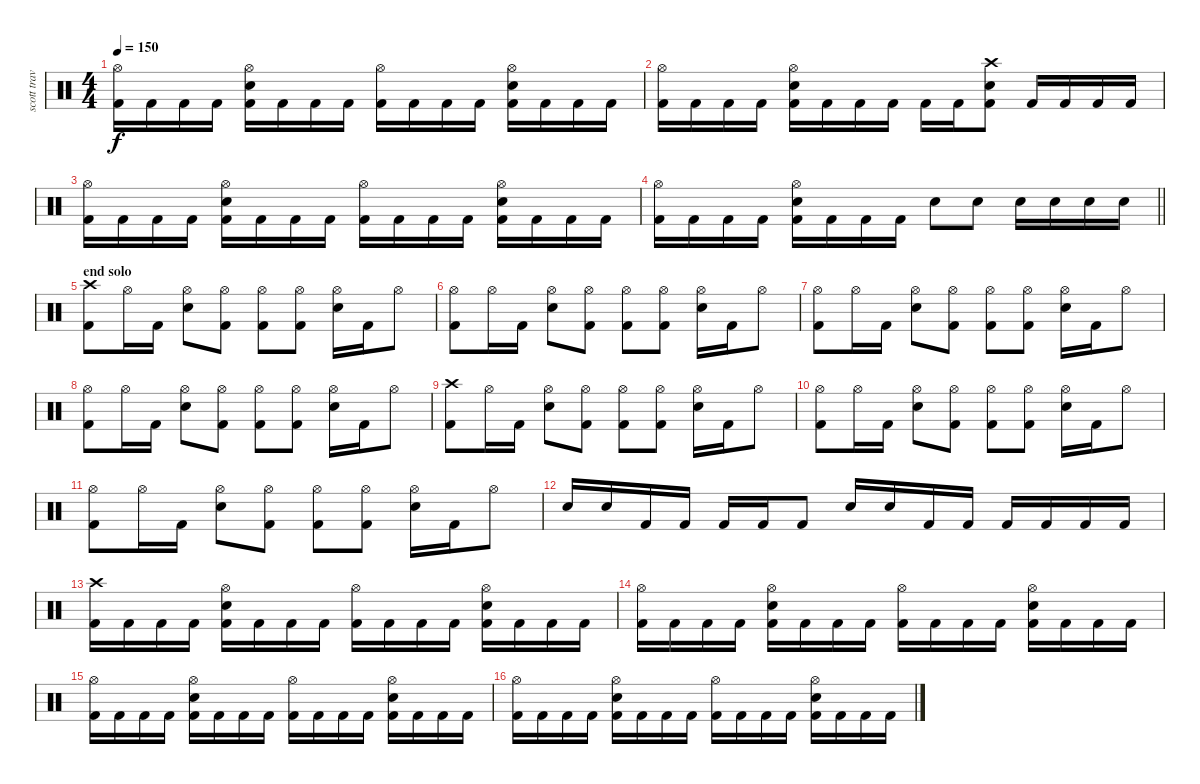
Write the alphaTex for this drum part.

\track ("scott travis" "scott trav") {instrument percussion}
\staff {score}
\articulation defaults
\ts (4 4)
\tempo 150
\clef neutral
\ks c
("Hi-Hat (open)" "Kick (hit) 2").16{dy f} "Kick (hit) 2".16 "Kick (hit) 2".16 "Kick (hit) 2".16 ("Hi-Hat (open)" "Snare (hit) 2" "Kick (hit) 2").16 "Kick (hit) 2".16 "Kick (hit) 2".16 "Kick (hit) 2".16 ("Hi-Hat (open)" "Kick (hit) 2").16 "Kick (hit) 2".16 "Kick (hit) 2".16 "Kick (hit) 2".16 ("Hi-Hat (open)" "Snare (hit) 2" "Kick (hit) 2").16 "Kick (hit) 2".16 "Kick (hit) 2".16 "Kick (hit) 2".16 |
("Hi-Hat (open)" "Kick (hit) 2").16 "Kick (hit) 2".16 "Kick (hit) 2".16 "Kick (hit) 2".16 ("Hi-Hat (open)" "Snare (hit) 2" "Kick (hit) 2").16 "Kick (hit) 2".16 "Kick (hit) 2".16 "Kick (hit) 2".16 "Kick (hit) 2".16 "Kick (hit) 2".16 ("Crash high (hit)" "Snare (hit) 2" "Kick (hit) 2").8 "Kick (hit) 2".16 "Kick (hit) 2".16 "Kick (hit) 2".16 "Kick (hit) 2".16 |
("Hi-Hat (open)" "Kick (hit) 2").16 "Kick (hit) 2".16 "Kick (hit) 2".16 "Kick (hit) 2".16 ("Hi-Hat (open)" "Snare (hit) 2" "Kick (hit) 2").16 "Kick (hit) 2".16 "Kick (hit) 2".16 "Kick (hit) 2".16 ("Hi-Hat (open)" "Kick (hit) 2").16 "Kick (hit) 2".16 "Kick (hit) 2".16 "Kick (hit) 2".16 ("Hi-Hat (open)" "Snare (hit) 2" "Kick (hit) 2").16 "Kick (hit) 2".16 "Kick (hit) 2".16 "Kick (hit) 2".16 |
\barLineRight lightlight
("Hi-Hat (open)" "Kick (hit) 2").16 "Kick (hit) 2".16 "Kick (hit) 2".16 "Kick (hit) 2".16 ("Hi-Hat (open)" "Snare (hit) 2" "Kick (hit) 2").16 "Kick (hit) 2".16 "Kick (hit) 2".16 "Kick (hit) 2".16 "Snare (hit) 2".8 "Snare (hit) 2".8 "Snare (hit) 2".16 "Snare (hit) 2".16 "Snare (hit) 2".16 "Snare (hit) 2".16 |
\section ("" "end solo")
("Crash high (hit)" "Kick (hit) 2").8 "Hi-Hat (open)".16 "Kick (hit) 2".16 ("Hi-Hat (open)" "Snare (hit) 2").8 ("Hi-Hat (open)" "Kick (hit) 2").8 ("Hi-Hat (open)" "Kick (hit) 2").8 ("Hi-Hat (open)" "Kick (hit) 2").8 ("Hi-Hat (open)" "Snare (hit) 2").16 "Kick (hit) 2".16 "Hi-Hat (open)".8 |
("Hi-Hat (open)" "Kick (hit) 2").8 "Hi-Hat (open)".16 "Kick (hit) 2".16 ("Hi-Hat (open)" "Snare (hit) 2").8 ("Hi-Hat (open)" "Kick (hit) 2").8 ("Hi-Hat (open)" "Kick (hit) 2").8 ("Hi-Hat (open)" "Kick (hit) 2").8 ("Hi-Hat (open)" "Snare (hit) 2").16 "Kick (hit) 2".16 "Hi-Hat (open)".8 |
("Hi-Hat (open)" "Kick (hit) 2").8 "Hi-Hat (open)".16 "Kick (hit) 2".16 ("Hi-Hat (open)" "Snare (hit) 2").8 ("Hi-Hat (open)" "Kick (hit) 2").8 ("Hi-Hat (open)" "Kick (hit) 2").8 ("Hi-Hat (open)" "Kick (hit) 2").8 ("Hi-Hat (open)" "Snare (hit) 2").16 "Kick (hit) 2".16 "Hi-Hat (open)".8 |
("Hi-Hat (open)" "Kick (hit) 2").8 "Hi-Hat (open)".16 "Kick (hit) 2".16 ("Hi-Hat (open)" "Snare (hit) 2").8 ("Hi-Hat (open)" "Kick (hit) 2").8 ("Hi-Hat (open)" "Kick (hit) 2").8 ("Hi-Hat (open)" "Kick (hit) 2").8 ("Hi-Hat (open)" "Snare (hit) 2").16 "Kick (hit) 2".16 "Hi-Hat (open)".8 |
("Crash high (hit)" "Kick (hit) 2").8 "Hi-Hat (open)".16 "Kick (hit) 2".16 ("Hi-Hat (open)" "Snare (hit) 2").8 ("Hi-Hat (open)" "Kick (hit) 2").8 ("Hi-Hat (open)" "Kick (hit) 2").8 ("Hi-Hat (open)" "Kick (hit) 2").8 ("Hi-Hat (open)" "Snare (hit) 2").16 "Kick (hit) 2".16 "Hi-Hat (open)".8 |
("Hi-Hat (open)" "Kick (hit) 2").8 "Hi-Hat (open)".16 "Kick (hit) 2".16 ("Hi-Hat (open)" "Snare (hit) 2").8 ("Hi-Hat (open)" "Kick (hit) 2").8 ("Hi-Hat (open)" "Kick (hit) 2").8 ("Hi-Hat (open)" "Kick (hit) 2").8 ("Hi-Hat (open)" "Snare (hit) 2").16 "Kick (hit) 2".16 "Hi-Hat (open)".8 |
("Hi-Hat (open)" "Kick (hit) 2").8 "Hi-Hat (open)".16 "Kick (hit) 2".16 ("Hi-Hat (open)" "Snare (hit) 2").8 ("Hi-Hat (open)" "Kick (hit) 2").8 ("Hi-Hat (open)" "Kick (hit) 2").8 ("Hi-Hat (open)" "Kick (hit) 2").8 ("Hi-Hat (open)" "Snare (hit) 2").16 "Kick (hit) 2".16 "Hi-Hat (open)".8 |
"Snare (hit) 2".16 "Snare (hit) 2".16 "Kick (hit) 2".16 "Kick (hit) 2".16 "Kick (hit) 2".16 "Kick (hit) 2".16 "Kick (hit) 2".8 "Snare (hit) 2".16 "Snare (hit) 2".16 "Kick (hit) 2".16 "Kick (hit) 2".16 "Kick (hit) 2".16 "Kick (hit) 2".16 "Kick (hit) 2".16 "Kick (hit) 2".16 |
("Crash high (hit)" "Kick (hit) 2").16 "Kick (hit) 2".16 "Kick (hit) 2".16 "Kick (hit) 2".16 ("Hi-Hat (open)" "Snare (hit) 2" "Kick (hit) 2").16 "Kick (hit) 2".16 "Kick (hit) 2".16 "Kick (hit) 2".16 ("Hi-Hat (open)" "Kick (hit) 2").16 "Kick (hit) 2".16 "Kick (hit) 2".16 "Kick (hit) 2".16 ("Hi-Hat (open)" "Snare (hit) 2" "Kick (hit) 2").16 "Kick (hit) 2".16 "Kick (hit) 2".16 "Kick (hit) 2".16 |
("Hi-Hat (open)" "Kick (hit) 2").16 "Kick (hit) 2".16 "Kick (hit) 2".16 "Kick (hit) 2".16 ("Hi-Hat (open)" "Snare (hit) 2" "Kick (hit) 2").16 "Kick (hit) 2".16 "Kick (hit) 2".16 "Kick (hit) 2".16 ("Hi-Hat (open)" "Kick (hit) 2").16 "Kick (hit) 2".16 "Kick (hit) 2".16 "Kick (hit) 2".16 ("Hi-Hat (open)" "Snare (hit) 2" "Kick (hit) 2").16 "Kick (hit) 2".16 "Kick (hit) 2".16 "Kick (hit) 2".16 |
("Hi-Hat (open)" "Kick (hit) 2").16 "Kick (hit) 2".16 "Kick (hit) 2".16 "Kick (hit) 2".16 ("Hi-Hat (open)" "Snare (hit) 2" "Kick (hit) 2").16 "Kick (hit) 2".16 "Kick (hit) 2".16 "Kick (hit) 2".16 ("Hi-Hat (open)" "Kick (hit) 2").16 "Kick (hit) 2".16 "Kick (hit) 2".16 "Kick (hit) 2".16 ("Hi-Hat (open)" "Snare (hit) 2" "Kick (hit) 2").16 "Kick (hit) 2".16 "Kick (hit) 2".16 "Kick (hit) 2".16 |
("Hi-Hat (open)" "Kick (hit) 2").16 "Kick (hit) 2".16 "Kick (hit) 2".16 "Kick (hit) 2".16 ("Hi-Hat (open)" "Snare (hit) 2" "Kick (hit) 2").16 "Kick (hit) 2".16 "Kick (hit) 2".16 "Kick (hit) 2".16 ("Hi-Hat (open)" "Kick (hit) 2").16 "Kick (hit) 2".16 "Kick (hit) 2".16 "Kick (hit) 2".16 ("Hi-Hat (open)" "Snare (hit) 2" "Kick (hit) 2").16 "Kick (hit) 2".16 "Kick (hit) 2".16 "Kick (hit) 2".16
